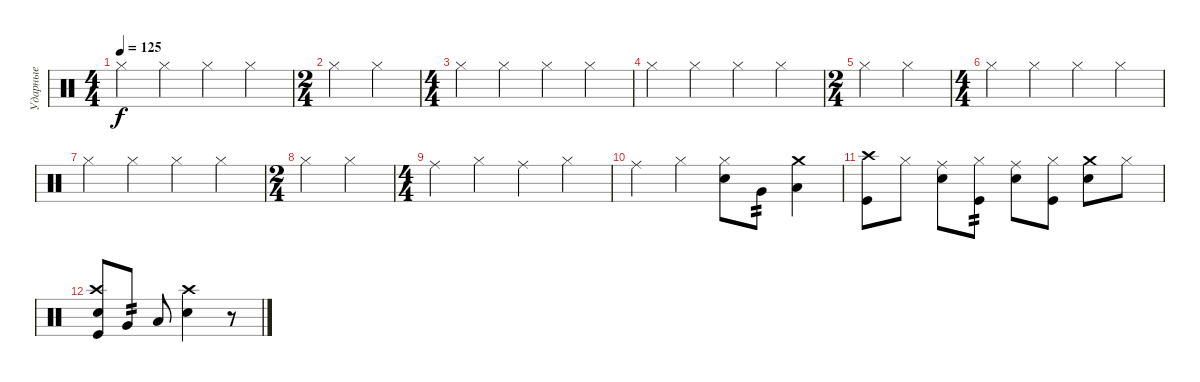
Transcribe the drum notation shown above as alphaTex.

\track ("Ударные" "Ударные") {instrument percussion}
\staff {score}
\articulation defaults
\ts (4 4)
\tempo 125
\clef neutral
\ks c "Hi-Hat (closed)".4{dy f} "Hi-Hat (closed)".4 "Hi-Hat (closed)".4 "Hi-Hat (closed)".4
|
\ts (2 4)
"Hi-Hat (closed)".4 "Hi-Hat (closed)".4 |
\ts (4 4)
"Hi-Hat (closed)".4 "Hi-Hat (closed)".4 "Hi-Hat (closed)".4 "Hi-Hat (closed)".4 |
"Hi-Hat (closed)".4 "Hi-Hat (closed)".4 "Hi-Hat (closed)".4 "Hi-Hat (closed)".4 |
\ts (2 4)
"Hi-Hat (closed)".4 "Hi-Hat (closed)".4 |
\ts (4 4)
"Hi-Hat (closed)".4 "Hi-Hat (closed)".4 "Hi-Hat (closed)".4 "Hi-Hat (closed)".4 |
"Hi-Hat (closed)".4 "Hi-Hat (closed)".4 "Hi-Hat (closed)".4 "Hi-Hat (closed)".4 |
\ts (2 4)
"Hi-Hat (closed)".4 "Hi-Hat (closed)".4 |
\ts (4 4)
"Ride (middle)".4 "Hi-Hat (closed)".4 "Ride (middle)".4 "Hi-Hat (closed)".4 |
"Ride (middle)".4 "Hi-Hat (closed)".4 ("Hi-Hat (closed)" "Electric Snare (hit)").8 "Very Low Tom (hit)".8{tp 2} ("Crash medium (hit)" "Low Floor Tom (hit)").4 |
("Crash high (hit)" "Kick (hit)").8 "Hi-Hat (closed)".8 ("Ride (middle)" "Electric Snare (hit)").8 ("Hi-Hat (closed)" "Kick (hit)").8{tp 2} ("Ride (middle)" "Electric Snare (hit)").8 ("Hi-Hat (closed)" "Kick (hit)").8 ("Crash medium (hit)" "Electric Snare (hit)").8 "Hi-Hat (closed)".8 |
("Crash high (hit)" "Electric Snare (hit)" "Kick (hit)").8 "Very Low Tom (hit)".8{tp 2} "Low Floor Tom (hit)".8 ("Crash high (hit)" "Metronome (bell)").2 r.8
